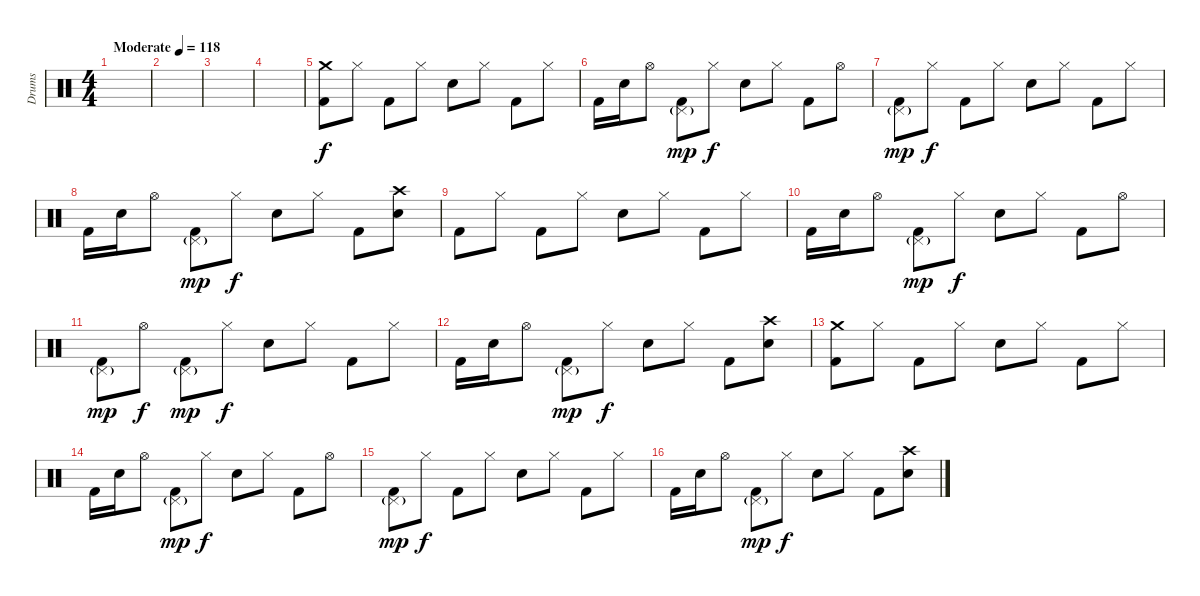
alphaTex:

\track ("Drums" "Drums") {instrument percussion bank 5}
\staff {score}
\articulation defaults
\ts (4 4)
\tempo (118 "Moderate")
\clef neutral
\ks c
|
|
|
|
("Crash medium (hit)" "Kick (hit) 2").8 "Hi-Hat (closed)".8 "Kick (hit) 2".8 "Hi-Hat (closed)".8 "Snare (hit) 2".8 "Hi-Hat (closed)".8 "Kick (hit) 2".8 "Hi-Hat (closed)".8 |
"Kick (hit) 2".16 "Snare (hit) 2".16 "Hi-Hat (open)".8 ("Pedal Hi-Hat (hit)"{g} "Kick (hit) 2").8{dy mp} "Hi-Hat (closed)".8{dy f} "Snare (hit) 2".8 "Hi-Hat (closed)".8 "Kick (hit) 2".8 "Hi-Hat (open)".8 |
("Pedal Hi-Hat (hit)"{g} "Kick (hit) 2").8{dy mp} "Hi-Hat (closed)".8{dy f} "Kick (hit) 2".8 "Hi-Hat (closed)".8 "Snare (hit) 2".8 "Hi-Hat (closed)".8 "Kick (hit) 2".8 "Hi-Hat (closed)".8 |
"Kick (hit) 2".16 "Snare (hit) 2".16 "Hi-Hat (open)".8 ("Pedal Hi-Hat (hit)"{g} "Kick (hit) 2").8{dy mp} "Hi-Hat (closed)".8{dy f} "Snare (hit) 2".8 "Hi-Hat (closed)".8 "Kick (hit) 2".8 ("Crash high (hit)" "Snare (hit) 2").8 |
"Kick (hit) 2".8 "Hi-Hat (closed)".8 "Kick (hit) 2".8 "Hi-Hat (closed)".8 "Snare (hit) 2".8 "Hi-Hat (closed)".8 "Kick (hit) 2".8 "Hi-Hat (closed)".8 |
"Kick (hit) 2".16 "Snare (hit) 2".16 "Hi-Hat (open)".8 ("Pedal Hi-Hat (hit)"{g} "Kick (hit) 2").8{dy mp} "Hi-Hat (closed)".8{dy f} "Snare (hit) 2".8 "Hi-Hat (closed)".8 "Kick (hit) 2".8 "Hi-Hat (open)".8 |
("Pedal Hi-Hat (hit)"{g} "Kick (hit) 2").8{dy mp} "Hi-Hat (open)".8{dy f} ("Pedal Hi-Hat (hit)"{g} "Kick (hit) 2").8{dy mp} "Hi-Hat (closed)".8{dy f} "Snare (hit) 2".8 "Hi-Hat (closed)".8 "Kick (hit) 2".8 "Hi-Hat (closed)".8 |
"Kick (hit) 2".16 "Snare (hit) 2".16 "Hi-Hat (open)".8 ("Pedal Hi-Hat (hit)"{g} "Kick (hit) 2").8{dy mp} "Hi-Hat (closed)".8{dy f} "Snare (hit) 2".8 "Hi-Hat (closed)".8 "Kick (hit) 2".8 ("Crash high (hit)" "Snare (hit) 2").8 |
("Crash medium (hit)" "Kick (hit) 2").8 "Hi-Hat (closed)".8 "Kick (hit) 2".8 "Hi-Hat (closed)".8 "Snare (hit) 2".8 "Hi-Hat (closed)".8 "Kick (hit) 2".8 "Hi-Hat (closed)".8 |
"Kick (hit) 2".16 "Snare (hit) 2".16 "Hi-Hat (open)".8 ("Pedal Hi-Hat (hit)"{g} "Kick (hit) 2").8{dy mp} "Hi-Hat (closed)".8{dy f} "Snare (hit) 2".8 "Hi-Hat (closed)".8 "Kick (hit) 2".8 "Hi-Hat (open)".8 |
("Pedal Hi-Hat (hit)"{g} "Kick (hit) 2").8{dy mp} "Hi-Hat (closed)".8{dy f} "Kick (hit) 2".8 "Hi-Hat (closed)".8 "Snare (hit) 2".8 "Hi-Hat (closed)".8 "Kick (hit) 2".8 "Hi-Hat (closed)".8 |
"Kick (hit) 2".16 "Snare (hit) 2".16 "Hi-Hat (open)".8 ("Pedal Hi-Hat (hit)"{g} "Kick (hit) 2").8{dy mp} "Hi-Hat (closed)".8{dy f} "Snare (hit) 2".8 "Hi-Hat (closed)".8 "Kick (hit) 2".8 ("Crash high (hit)" "Snare (hit) 2").8
